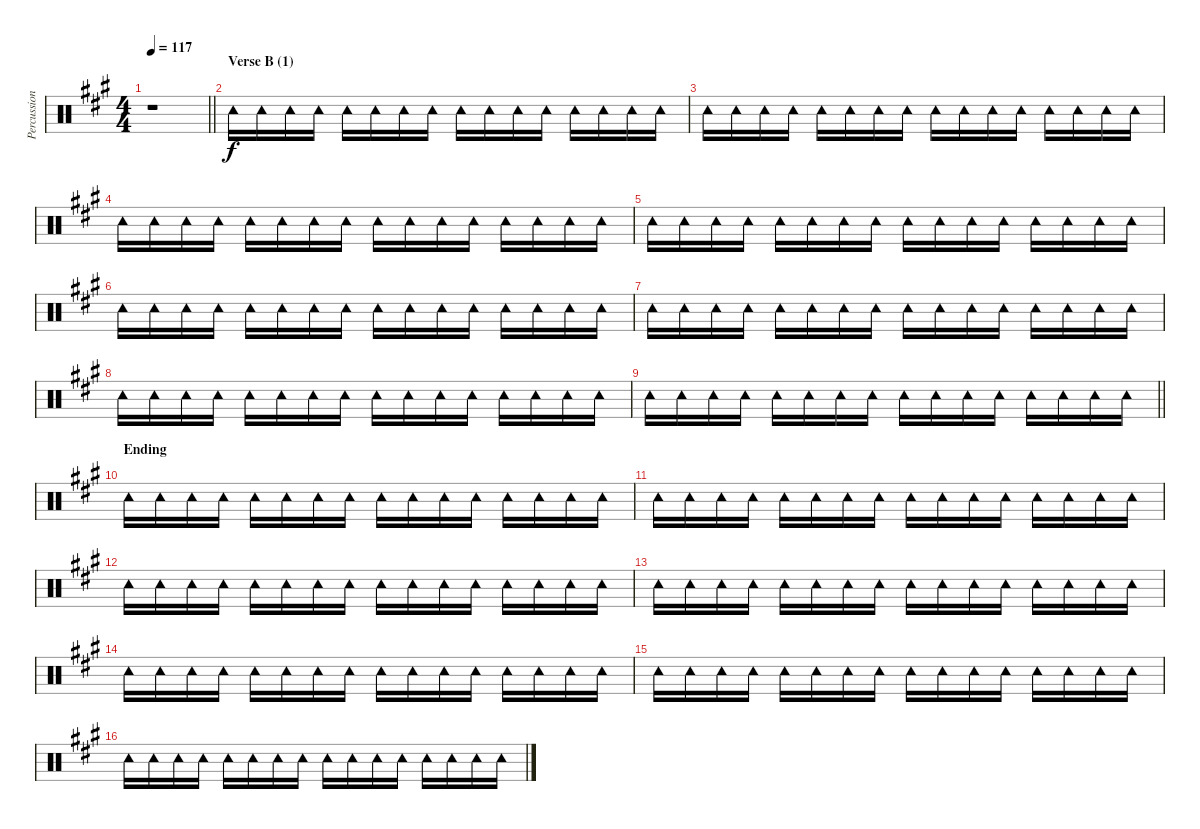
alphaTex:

\track ("Percussion" "Percussion") {instrument percussion}
\staff {score}
\articulation defaults
\ts (4 4)
\tempo 117
\clef neutral
\barLineRight lightlight
\ks f#minor
r.1{dy f} |
\section ("" "Verse B (1)")
"Tambourine (hit)".16 "Tambourine (hit)".16 "Tambourine (hit)".16 "Tambourine (hit)".16 "Tambourine (hit)".16 "Tambourine (hit)".16 "Tambourine (hit)".16 "Tambourine (hit)".16 "Tambourine (hit)".16 "Tambourine (hit)".16 "Tambourine (hit)".16 "Tambourine (hit)".16 "Tambourine (hit)".16 "Tambourine (hit)".16 "Tambourine (hit)".16 "Tambourine (hit)".16 |
"Tambourine (hit)".16 "Tambourine (hit)".16 "Tambourine (hit)".16 "Tambourine (hit)".16 "Tambourine (hit)".16 "Tambourine (hit)".16 "Tambourine (hit)".16 "Tambourine (hit)".16 "Tambourine (hit)".16 "Tambourine (hit)".16 "Tambourine (hit)".16 "Tambourine (hit)".16 "Tambourine (hit)".16 "Tambourine (hit)".16 "Tambourine (hit)".16 "Tambourine (hit)".16 |
"Tambourine (hit)".16 "Tambourine (hit)".16 "Tambourine (hit)".16 "Tambourine (hit)".16 "Tambourine (hit)".16 "Tambourine (hit)".16 "Tambourine (hit)".16 "Tambourine (hit)".16 "Tambourine (hit)".16 "Tambourine (hit)".16 "Tambourine (hit)".16 "Tambourine (hit)".16 "Tambourine (hit)".16 "Tambourine (hit)".16 "Tambourine (hit)".16 "Tambourine (hit)".16 |
"Tambourine (hit)".16 "Tambourine (hit)".16 "Tambourine (hit)".16 "Tambourine (hit)".16 "Tambourine (hit)".16 "Tambourine (hit)".16 "Tambourine (hit)".16 "Tambourine (hit)".16 "Tambourine (hit)".16 "Tambourine (hit)".16 "Tambourine (hit)".16 "Tambourine (hit)".16 "Tambourine (hit)".16 "Tambourine (hit)".16 "Tambourine (hit)".16 "Tambourine (hit)".16 |
"Tambourine (hit)".16 "Tambourine (hit)".16 "Tambourine (hit)".16 "Tambourine (hit)".16 "Tambourine (hit)".16 "Tambourine (hit)".16 "Tambourine (hit)".16 "Tambourine (hit)".16 "Tambourine (hit)".16 "Tambourine (hit)".16 "Tambourine (hit)".16 "Tambourine (hit)".16 "Tambourine (hit)".16 "Tambourine (hit)".16 "Tambourine (hit)".16 "Tambourine (hit)".16 |
"Tambourine (hit)".16 "Tambourine (hit)".16 "Tambourine (hit)".16 "Tambourine (hit)".16 "Tambourine (hit)".16 "Tambourine (hit)".16 "Tambourine (hit)".16 "Tambourine (hit)".16 "Tambourine (hit)".16 "Tambourine (hit)".16 "Tambourine (hit)".16 "Tambourine (hit)".16 "Tambourine (hit)".16 "Tambourine (hit)".16 "Tambourine (hit)".16 "Tambourine (hit)".16 |
"Tambourine (hit)".16 "Tambourine (hit)".16 "Tambourine (hit)".16 "Tambourine (hit)".16 "Tambourine (hit)".16 "Tambourine (hit)".16 "Tambourine (hit)".16 "Tambourine (hit)".16 "Tambourine (hit)".16 "Tambourine (hit)".16 "Tambourine (hit)".16 "Tambourine (hit)".16 "Tambourine (hit)".16 "Tambourine (hit)".16 "Tambourine (hit)".16 "Tambourine (hit)".16 |
\barLineRight lightlight "Tambourine (hit)".16 "Tambourine (hit)".16 "Tambourine (hit)".16 "Tambourine (hit)".16 "Tambourine (hit)".16 "Tambourine (hit)".16 "Tambourine (hit)".16 "Tambourine (hit)".16 "Tambourine (hit)".16 "Tambourine (hit)".16 "Tambourine (hit)".16 "Tambourine (hit)".16 "Tambourine (hit)".16 "Tambourine (hit)".16 "Tambourine (hit)".16 "Tambourine (hit)".16
|
\section ("" "Ending")
"Tambourine (hit)".16 "Tambourine (hit)".16 "Tambourine (hit)".16 "Tambourine (hit)".16 "Tambourine (hit)".16 "Tambourine (hit)".16 "Tambourine (hit)".16 "Tambourine (hit)".16 "Tambourine (hit)".16 "Tambourine (hit)".16 "Tambourine (hit)".16 "Tambourine (hit)".16 "Tambourine (hit)".16 "Tambourine (hit)".16 "Tambourine (hit)".16 "Tambourine (hit)".16 |
"Tambourine (hit)".16 "Tambourine (hit)".16 "Tambourine (hit)".16 "Tambourine (hit)".16 "Tambourine (hit)".16 "Tambourine (hit)".16 "Tambourine (hit)".16 "Tambourine (hit)".16 "Tambourine (hit)".16 "Tambourine (hit)".16 "Tambourine (hit)".16 "Tambourine (hit)".16 "Tambourine (hit)".16 "Tambourine (hit)".16 "Tambourine (hit)".16 "Tambourine (hit)".16 |
"Tambourine (hit)".16 "Tambourine (hit)".16 "Tambourine (hit)".16 "Tambourine (hit)".16 "Tambourine (hit)".16 "Tambourine (hit)".16 "Tambourine (hit)".16 "Tambourine (hit)".16 "Tambourine (hit)".16 "Tambourine (hit)".16 "Tambourine (hit)".16 "Tambourine (hit)".16 "Tambourine (hit)".16 "Tambourine (hit)".16 "Tambourine (hit)".16 "Tambourine (hit)".16 |
"Tambourine (hit)".16 "Tambourine (hit)".16 "Tambourine (hit)".16 "Tambourine (hit)".16 "Tambourine (hit)".16 "Tambourine (hit)".16 "Tambourine (hit)".16 "Tambourine (hit)".16 "Tambourine (hit)".16 "Tambourine (hit)".16 "Tambourine (hit)".16 "Tambourine (hit)".16 "Tambourine (hit)".16 "Tambourine (hit)".16 "Tambourine (hit)".16 "Tambourine (hit)".16 |
"Tambourine (hit)".16 "Tambourine (hit)".16 "Tambourine (hit)".16 "Tambourine (hit)".16 "Tambourine (hit)".16 "Tambourine (hit)".16 "Tambourine (hit)".16 "Tambourine (hit)".16 "Tambourine (hit)".16 "Tambourine (hit)".16 "Tambourine (hit)".16 "Tambourine (hit)".16 "Tambourine (hit)".16 "Tambourine (hit)".16 "Tambourine (hit)".16 "Tambourine (hit)".16 |
"Tambourine (hit)".16 "Tambourine (hit)".16 "Tambourine (hit)".16 "Tambourine (hit)".16 "Tambourine (hit)".16 "Tambourine (hit)".16 "Tambourine (hit)".16 "Tambourine (hit)".16 "Tambourine (hit)".16 "Tambourine (hit)".16 "Tambourine (hit)".16 "Tambourine (hit)".16 "Tambourine (hit)".16 "Tambourine (hit)".16 "Tambourine (hit)".16 "Tambourine (hit)".16 |
"Tambourine (hit)".16 "Tambourine (hit)".16 "Tambourine (hit)".16 "Tambourine (hit)".16 "Tambourine (hit)".16 "Tambourine (hit)".16 "Tambourine (hit)".16 "Tambourine (hit)".16 "Tambourine (hit)".16 "Tambourine (hit)".16 "Tambourine (hit)".16 "Tambourine (hit)".16 "Tambourine (hit)".16 "Tambourine (hit)".16 "Tambourine (hit)".16 "Tambourine (hit)".16
